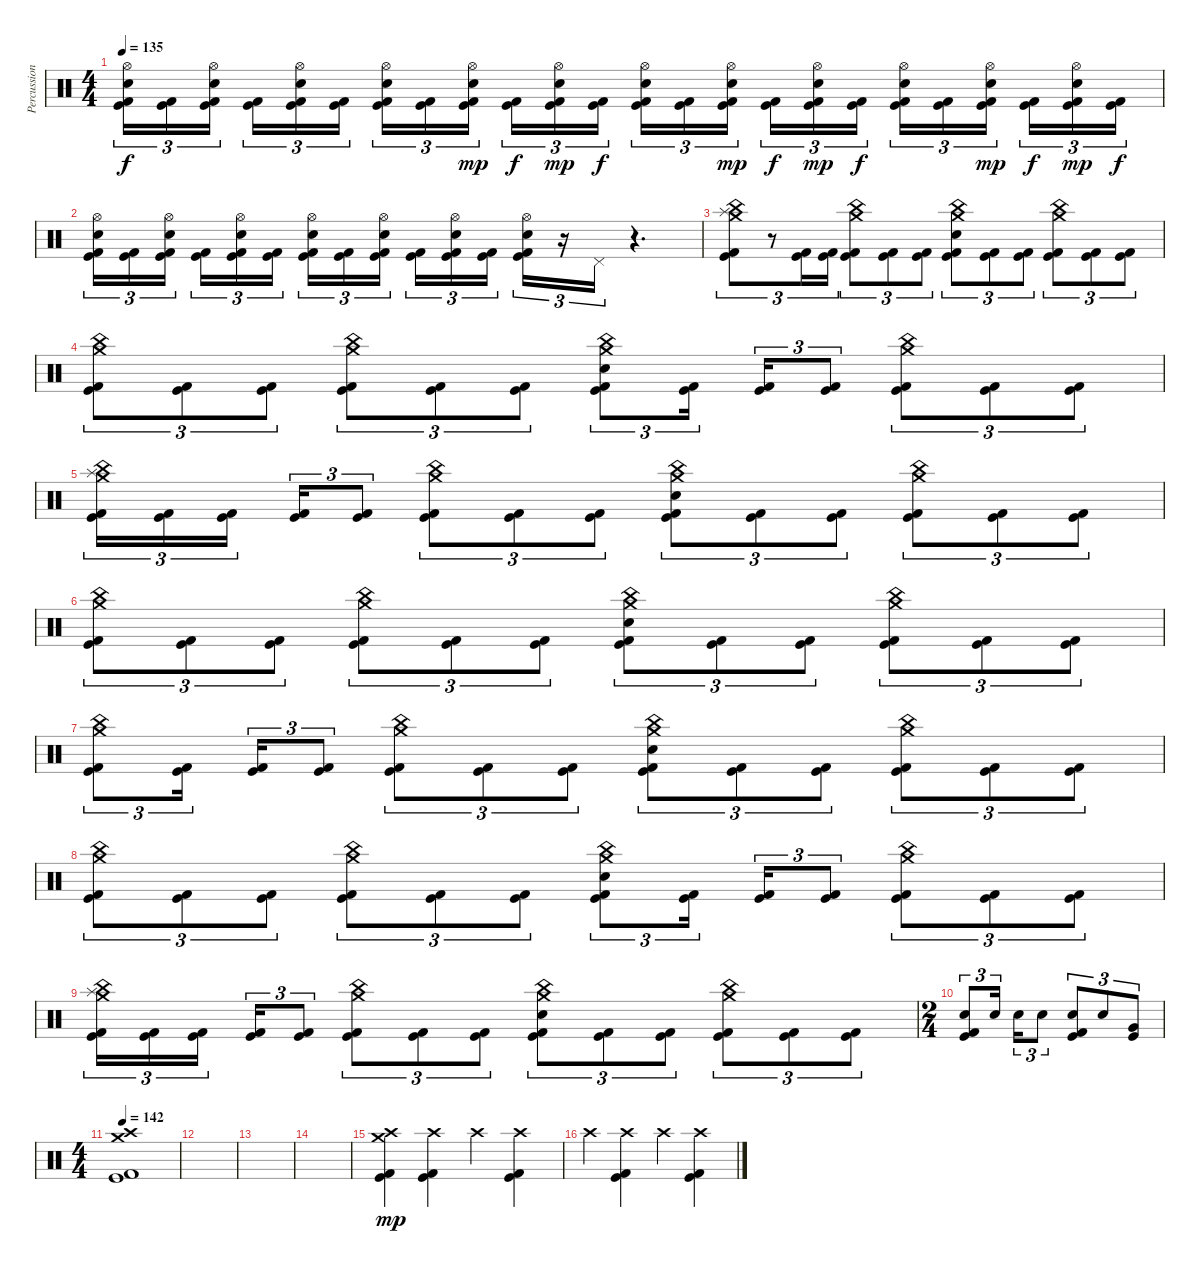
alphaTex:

\track ("Percussion" "Percussion") {instrument percussion}
\staff {score}
\articulation defaults
\ts (4 4)
\tempo 135
\clef neutral
\ks c
("Hi-Hat (open)" "Electric Snare (hit)" "Kick (hit)" "Kick (hit) 2").16{tu (3 2) dy f} ("Kick (hit)" "Kick (hit) 2").16{tu (3 2)} ("Hi-Hat (open)" "Electric Snare (hit)" "Kick (hit)" "Kick (hit) 2").16{tu (3 2) beam splitsecondary} ("Kick (hit)" "Kick (hit) 2").16{tu (3 2)} ("Hi-Hat (open)" "Electric Snare (hit)" "Kick (hit)" "Kick (hit) 2").16{tu (3 2)} ("Kick (hit)" "Kick (hit) 2").16{tu (3 2)} ("Hi-Hat (open)" "Electric Snare (hit)" "Kick (hit)" "Kick (hit) 2").16{tu (3 2)} ("Kick (hit)" "Kick (hit) 2").16{tu (3 2)} ("Hi-Hat (open)" "Electric Snare (hit)" "Kick (hit)" "Kick (hit) 2").16{tu (3 2) dy mp beam splitsecondary} ("Kick (hit)" "Kick (hit) 2").16{tu (3 2) dy f} ("Hi-Hat (open)" "Electric Snare (hit)" "Kick (hit)" "Kick (hit) 2").16{tu (3 2) dy mp} ("Kick (hit)" "Kick (hit) 2").16{tu (3 2) dy f} ("Hi-Hat (open)" "Electric Snare (hit)" "Kick (hit)" "Kick (hit) 2").16{tu (3 2)} ("Kick (hit)" "Kick (hit) 2").16{tu (3 2)} ("Hi-Hat (open)" "Electric Snare (hit)" "Kick (hit)" "Kick (hit) 2").16{tu (3 2) dy mp beam splitsecondary} ("Kick (hit)" "Kick (hit) 2").16{tu (3 2) dy f} ("Hi-Hat (open)" "Electric Snare (hit)" "Kick (hit)" "Kick (hit) 2").16{tu (3 2) dy mp} ("Kick (hit)" "Kick (hit) 2").16{tu (3 2) dy f} ("Hi-Hat (open)" "Electric Snare (hit)" "Kick (hit)" "Kick (hit) 2").16{tu (3 2)} ("Kick (hit)" "Kick (hit) 2").16{tu (3 2)} ("Hi-Hat (open)" "Electric Snare (hit)" "Kick (hit)" "Kick (hit) 2").16{tu (3 2) dy mp beam splitsecondary} ("Kick (hit)" "Kick (hit) 2").16{tu (3 2) dy f} ("Hi-Hat (open)" "Electric Snare (hit)" "Kick (hit)" "Kick (hit) 2").16{tu (3 2) dy mp} ("Kick (hit)" "Kick (hit) 2").16{tu (3 2) dy f} |
("Hi-Hat (open)" "Electric Snare (hit)" "Kick (hit)" "Kick (hit) 2").16{tu (3 2)} ("Kick (hit)" "Kick (hit) 2").16{tu (3 2)} ("Hi-Hat (open)" "Electric Snare (hit)" "Kick (hit)" "Kick (hit) 2").16{tu (3 2) beam splitsecondary} ("Kick (hit)" "Kick (hit) 2").16{tu (3 2)} ("Hi-Hat (open)" "Electric Snare (hit)" "Kick (hit)" "Kick (hit) 2").16{tu (3 2)} ("Kick (hit)" "Kick (hit) 2").16{tu (3 2)} ("Hi-Hat (open)" "Electric Snare (hit)" "Kick (hit)" "Kick (hit) 2").16{tu (3 2)} ("Kick (hit)" "Kick (hit) 2").16{tu (3 2)} ("Hi-Hat (open)" "Electric Snare (hit)" "Kick (hit)" "Kick (hit) 2").16{tu (3 2) beam splitsecondary} ("Kick (hit)" "Kick (hit) 2").16{tu (3 2)} ("Hi-Hat (open)" "Electric Snare (hit)" "Kick (hit)" "Kick (hit) 2").16{tu (3 2)} ("Kick (hit)" "Kick (hit) 2").16{tu (3 2)} ("Hi-Hat (open)" "Electric Snare (hit)" "Kick (hit)" "Kick (hit) 2").16{tu (3 2)} r.16{tu (3 2)} "Pedal Hi-Hat (hit)".16{tu (3 2)} r.4{d} |
("Crash medium (hit)" "China (hit)" "Splash (hit)" "Kick (hit)" "Kick (hit) 2").8{tu (3 2)} r.8{tu (3 2)} ("Kick (hit)" "Kick (hit) 2").16{tu (3 2)} ("Kick (hit)" "Kick (hit) 2").16{tu (3 2)} ("Crash medium (hit)" "China (hit)" "Kick (hit)" "Kick (hit) 2").8{tu (3 2)} ("Kick (hit)" "Kick (hit) 2").8{tu (3 2)} ("Kick (hit)" "Kick (hit) 2").8{tu (3 2)} ("Crash medium (hit)" "China (hit)" "Electric Snare (hit)" "Kick (hit)" "Kick (hit) 2").8{tu (3 2)} ("Kick (hit)" "Kick (hit) 2").8{tu (3 2)} ("Kick (hit)" "Kick (hit) 2").8{tu (3 2)} ("Crash medium (hit)" "China (hit)" "Kick (hit)" "Kick (hit) 2").8{tu (3 2)} ("Kick (hit)" "Kick (hit) 2").8{tu (3 2)} ("Kick (hit)" "Kick (hit) 2").8{tu (3 2)} |
("Crash medium (hit)" "China (hit)" "Kick (hit)" "Kick (hit) 2").8{tu (3 2)} ("Kick (hit)" "Kick (hit) 2").8{tu (3 2)} ("Kick (hit)" "Kick (hit) 2").8{tu (3 2)} ("Crash medium (hit)" "China (hit)" "Kick (hit)" "Kick (hit) 2").8{tu (3 2)} ("Kick (hit)" "Kick (hit) 2").8{tu (3 2)} ("Kick (hit)" "Kick (hit) 2").8{tu (3 2)} ("Crash medium (hit)" "China (hit)" "Electric Snare (hit)" "Kick (hit)" "Kick (hit) 2").8{tu (3 2)} ("Kick (hit)" "Kick (hit) 2").16{tu (3 2) beam splitsecondary} ("Kick (hit)" "Kick (hit) 2").16{tu (3 2)} ("Kick (hit)" "Kick (hit) 2").8{tu (3 2)} ("Crash medium (hit)" "China (hit)" "Kick (hit)" "Kick (hit) 2").8{tu (3 2)} ("Kick (hit)" "Kick (hit) 2").8{tu (3 2)} ("Kick (hit)" "Kick (hit) 2").8{tu (3 2)} |
("Crash medium (hit)" "China (hit)" "Splash (hit)" "Kick (hit)" "Kick (hit) 2").16{tu (3 2)} ("Kick (hit)" "Kick (hit) 2").16{tu (3 2)} ("Kick (hit)" "Kick (hit) 2").16{tu (3 2) beam splitsecondary} ("Kick (hit)" "Kick (hit) 2").16{tu (3 2)} ("Kick (hit)" "Kick (hit) 2").8{tu (3 2)} ("Crash medium (hit)" "China (hit)" "Kick (hit)" "Kick (hit) 2").8{tu (3 2)} ("Kick (hit)" "Kick (hit) 2").8{tu (3 2)} ("Kick (hit)" "Kick (hit) 2").8{tu (3 2)} ("Crash medium (hit)" "China (hit)" "Electric Snare (hit)" "Kick (hit)" "Kick (hit) 2").8{tu (3 2)} ("Kick (hit)" "Kick (hit) 2").8{tu (3 2)} ("Kick (hit)" "Kick (hit) 2").8{tu (3 2)} ("Crash medium (hit)" "China (hit)" "Kick (hit)" "Kick (hit) 2").8{tu (3 2)} ("Kick (hit)" "Kick (hit) 2").8{tu (3 2)} ("Kick (hit)" "Kick (hit) 2").8{tu (3 2)} |
("Crash medium (hit)" "China (hit)" "Kick (hit)" "Kick (hit) 2").8{tu (3 2)} ("Kick (hit)" "Kick (hit) 2").8{tu (3 2)} ("Kick (hit)" "Kick (hit) 2").8{tu (3 2)} ("Crash medium (hit)" "China (hit)" "Kick (hit)" "Kick (hit) 2").8{tu (3 2)} ("Kick (hit)" "Kick (hit) 2").8{tu (3 2)} ("Kick (hit)" "Kick (hit) 2").8{tu (3 2)} ("Crash medium (hit)" "China (hit)" "Electric Snare (hit)" "Kick (hit)" "Kick (hit) 2").8{tu (3 2)} ("Kick (hit)" "Kick (hit) 2").8{tu (3 2)} ("Kick (hit)" "Kick (hit) 2").8{tu (3 2)} ("Crash medium (hit)" "China (hit)" "Kick (hit)" "Kick (hit) 2").8{tu (3 2)} ("Kick (hit)" "Kick (hit) 2").8{tu (3 2)} ("Kick (hit)" "Kick (hit) 2").8{tu (3 2)} |
("Crash medium (hit)" "China (hit)" "Kick (hit)" "Kick (hit) 2").8{tu (3 2)} ("Kick (hit)" "Kick (hit) 2").16{tu (3 2) beam splitsecondary} ("Kick (hit)" "Kick (hit) 2").16{tu (3 2)} ("Kick (hit)" "Kick (hit) 2").8{tu (3 2)} ("Crash medium (hit)" "China (hit)" "Kick (hit)" "Kick (hit) 2").8{tu (3 2)} ("Kick (hit)" "Kick (hit) 2").8{tu (3 2)} ("Kick (hit)" "Kick (hit) 2").8{tu (3 2)} ("Crash medium (hit)" "China (hit)" "Electric Snare (hit)" "Kick (hit)" "Kick (hit) 2").8{tu (3 2)} ("Kick (hit)" "Kick (hit) 2").8{tu (3 2)} ("Kick (hit)" "Kick (hit) 2").8{tu (3 2)} ("Crash medium (hit)" "China (hit)" "Kick (hit)" "Kick (hit) 2").8{tu (3 2)} ("Kick (hit)" "Kick (hit) 2").8{tu (3 2)} ("Kick (hit)" "Kick (hit) 2").8{tu (3 2)} |
("Crash medium (hit)" "China (hit)" "Kick (hit)" "Kick (hit) 2").8{tu (3 2)} ("Kick (hit)" "Kick (hit) 2").8{tu (3 2)} ("Kick (hit)" "Kick (hit) 2").8{tu (3 2)} ("Crash medium (hit)" "China (hit)" "Kick (hit)" "Kick (hit) 2").8{tu (3 2)} ("Kick (hit)" "Kick (hit) 2").8{tu (3 2)} ("Kick (hit)" "Kick (hit) 2").8{tu (3 2)} ("Crash medium (hit)" "China (hit)" "Electric Snare (hit)" "Kick (hit)" "Kick (hit) 2").8{tu (3 2)} ("Kick (hit)" "Kick (hit) 2").16{tu (3 2) beam splitsecondary} ("Kick (hit)" "Kick (hit) 2").16{tu (3 2)} ("Kick (hit)" "Kick (hit) 2").8{tu (3 2)} ("Crash medium (hit)" "China (hit)" "Kick (hit)" "Kick (hit) 2").8{tu (3 2)} ("Kick (hit)" "Kick (hit) 2").8{tu (3 2)} ("Kick (hit)" "Kick (hit) 2").8{tu (3 2)} |
("Crash medium (hit)" "China (hit)" "Splash (hit)" "Kick (hit)" "Kick (hit) 2").16{tu (3 2)} ("Kick (hit)" "Kick (hit) 2").16{tu (3 2)} ("Kick (hit)" "Kick (hit) 2").16{tu (3 2) beam splitsecondary} ("Kick (hit)" "Kick (hit) 2").16{tu (3 2)} ("Kick (hit)" "Kick (hit) 2").8{tu (3 2)} ("Crash medium (hit)" "China (hit)" "Kick (hit)" "Kick (hit) 2").8{tu (3 2)} ("Kick (hit)" "Kick (hit) 2").8{tu (3 2)} ("Kick (hit)" "Kick (hit) 2").8{tu (3 2)} ("Crash medium (hit)" "China (hit)" "Electric Snare (hit)" "Kick (hit)" "Kick (hit) 2").8{tu (3 2)} ("Kick (hit)" "Kick (hit) 2").8{tu (3 2)} ("Kick (hit)" "Kick (hit) 2").8{tu (3 2)} ("Crash medium (hit)" "China (hit)" "Kick (hit)" "Kick (hit) 2").8{tu (3 2)} ("Kick (hit)" "Kick (hit) 2").8{tu (3 2)} ("Kick (hit)" "Kick (hit) 2").8{tu (3 2)} |
\ts (2 4)
("Electric Snare (hit)" "Kick (hit)" "Kick (hit) 2").8{tu (3 2)} "Electric Snare (hit)".16{tu (3 2) beam splitsecondary} "Electric Snare (hit)".16{tu (3 2)} "Electric Snare (hit)".8{tu (3 2)} ("Electric Snare (hit)" "Kick (hit)" "Kick (hit) 2").8{tu (3 2)} "Electric Snare (hit)".8{tu (3 2)} ("Very Low Tom (hit)" "Kick (hit)").8{tu (3 2)} |
\ts (4 4)
\tempo 142
("Crash medium (hit)" "Crash high (hit)" "Kick (hit)" "Kick (hit) 2").1 |
|
|
|
("Crash medium (hit)" "Crash high (hit)" "Kick (hit)" "Kick (hit) 2").4{dy mp} ("Crash high (hit)" "Kick (hit)" "Kick (hit) 2").4 "Crash high (hit)".4 ("Crash high (hit)" "Kick (hit)" "Kick (hit) 2").4 |
"Crash high (hit)".4 ("Crash high (hit)" "Kick (hit)" "Kick (hit) 2").4 "Crash high (hit)".4 ("Crash high (hit)" "Kick (hit)" "Kick (hit) 2").4
